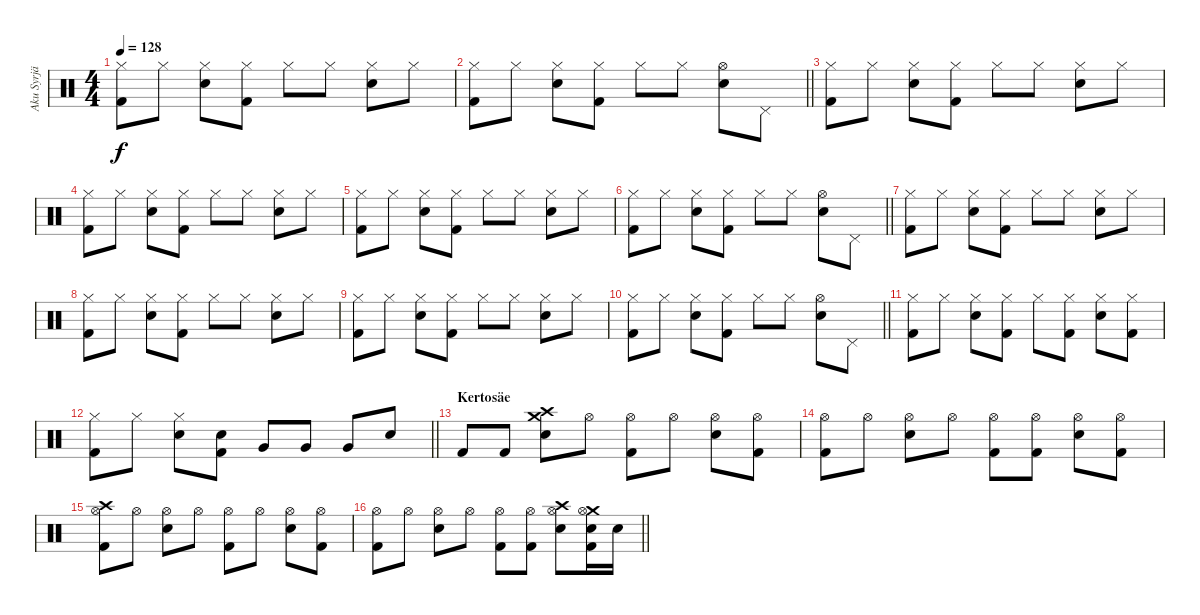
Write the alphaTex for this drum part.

\track ("Aku Syrjä" "Aku Syrjä") {instrument percussion}
\staff {score}
\articulation defaults
\ts (4 4)
\tempo 128
\clef neutral
\ks c
("Hi-Hat (closed)" "Kick (hit) 2").8{dy f} "Hi-Hat (closed)".8 ("Hi-Hat (closed)" "Electric Snare (hit)").8 ("Hi-Hat (closed)" "Kick (hit) 2").8 "Hi-Hat (closed)".8 "Hi-Hat (closed)".8 ("Hi-Hat (closed)" "Electric Snare (hit)").8 "Hi-Hat (closed)".8 |
\barLineRight lightlight
("Hi-Hat (closed)" "Kick (hit) 2").8 "Hi-Hat (closed)".8 ("Hi-Hat (closed)" "Electric Snare (hit)").8 ("Hi-Hat (closed)" "Kick (hit) 2").8 "Hi-Hat (closed)".8 "Hi-Hat (closed)".8 ("Hi-Hat (open)" "Electric Snare (hit)").8 "Pedal Hi-Hat (hit)".8 |
("Hi-Hat (closed)" "Kick (hit) 2").8 "Hi-Hat (closed)".8 ("Hi-Hat (closed)" "Electric Snare (hit)").8 ("Hi-Hat (closed)" "Kick (hit) 2").8 "Hi-Hat (closed)".8 "Hi-Hat (closed)".8 ("Hi-Hat (closed)" "Electric Snare (hit)").8 "Hi-Hat (closed)".8 |
("Hi-Hat (closed)" "Kick (hit) 2").8 "Hi-Hat (closed)".8 ("Hi-Hat (closed)" "Electric Snare (hit)").8 ("Hi-Hat (closed)" "Kick (hit) 2").8 "Hi-Hat (closed)".8 "Hi-Hat (closed)".8 ("Hi-Hat (closed)" "Electric Snare (hit)").8 "Hi-Hat (closed)".8 |
("Hi-Hat (closed)" "Kick (hit) 2").8 "Hi-Hat (closed)".8 ("Hi-Hat (closed)" "Electric Snare (hit)").8 ("Hi-Hat (closed)" "Kick (hit) 2").8 "Hi-Hat (closed)".8 "Hi-Hat (closed)".8 ("Hi-Hat (closed)" "Electric Snare (hit)").8 "Hi-Hat (closed)".8 |
\barLineRight lightlight
("Hi-Hat (closed)" "Kick (hit) 2").8 "Hi-Hat (closed)".8 ("Hi-Hat (closed)" "Electric Snare (hit)").8 ("Hi-Hat (closed)" "Kick (hit) 2").8 "Hi-Hat (closed)".8 "Hi-Hat (closed)".8 ("Hi-Hat (open)" "Electric Snare (hit)").8 "Pedal Hi-Hat (hit)".8 |
("Hi-Hat (closed)" "Kick (hit) 2").8 "Hi-Hat (closed)".8 ("Hi-Hat (closed)" "Electric Snare (hit)").8 ("Hi-Hat (closed)" "Kick (hit) 2").8 "Hi-Hat (closed)".8 "Hi-Hat (closed)".8 ("Hi-Hat (closed)" "Electric Snare (hit)").8 "Hi-Hat (closed)".8 |
("Hi-Hat (closed)" "Kick (hit) 2").8 "Hi-Hat (closed)".8 ("Hi-Hat (closed)" "Electric Snare (hit)").8 ("Hi-Hat (closed)" "Kick (hit) 2").8 "Hi-Hat (closed)".8 "Hi-Hat (closed)".8 ("Hi-Hat (closed)" "Electric Snare (hit)").8 "Hi-Hat (closed)".8 |
("Hi-Hat (closed)" "Kick (hit) 2").8 "Hi-Hat (closed)".8 ("Hi-Hat (closed)" "Electric Snare (hit)").8 ("Hi-Hat (closed)" "Kick (hit) 2").8 "Hi-Hat (closed)".8 "Hi-Hat (closed)".8 ("Hi-Hat (closed)" "Electric Snare (hit)").8 "Hi-Hat (closed)".8 |
\barLineRight lightlight
("Hi-Hat (closed)" "Kick (hit) 2").8 "Hi-Hat (closed)".8 ("Hi-Hat (closed)" "Electric Snare (hit)").8 ("Hi-Hat (closed)" "Kick (hit) 2").8 "Hi-Hat (closed)".8 "Hi-Hat (closed)".8 ("Hi-Hat (open)" "Electric Snare (hit)").8 "Pedal Hi-Hat (hit)".8 |
("Hi-Hat (closed)" "Kick (hit) 2").8 "Hi-Hat (closed)".8 ("Hi-Hat (closed)" "Electric Snare (hit)").8 ("Hi-Hat (closed)" "Kick (hit) 2").8 "Hi-Hat (closed)".8 ("Hi-Hat (closed)" "Kick (hit) 2").8 ("Hi-Hat (closed)" "Electric Snare (hit)").8 ("Hi-Hat (closed)" "Kick (hit) 2").8 |
\barLineRight lightlight
("Hi-Hat (closed)" "Kick (hit) 2").8 "Hi-Hat (closed)".8 ("Hi-Hat (closed)" "Electric Snare (hit)").8 ("Electric Snare (hit)" "Kick (hit) 2").8 "Very Low Tom (hit)".8 "Very Low Tom (hit)".8 "Very Low Tom (hit)".8 "Electric Snare (hit)".8 |
\section ("" "Kertosäe")
"Kick (hit) 2".8 "Kick (hit) 2".8 ("Crash high (hit)" "Crash medium (hit)" "Electric Snare (hit)").8 "Hi-Hat (open)".8 ("Hi-Hat (open)" "Kick (hit) 2").8 "Hi-Hat (open)".8 ("Hi-Hat (open)" "Electric Snare (hit)").8 ("Hi-Hat (open)" "Kick (hit) 2").8 |
("Hi-Hat (open)" "Kick (hit) 2").8 "Hi-Hat (open)".8 ("Hi-Hat (open)" "Electric Snare (hit)").8 "Hi-Hat (open)".8 ("Hi-Hat (open)" "Kick (hit) 2").8 ("Hi-Hat (open)" "Kick (hit) 2").8 ("Hi-Hat (open)" "Electric Snare (hit)").8 ("Hi-Hat (open)" "Kick (hit) 2").8 |
("Crash high (hit)" "Hi-Hat (open)" "Kick (hit) 2").8 "Hi-Hat (open)".8 ("Hi-Hat (open)" "Electric Snare (hit)").8 "Hi-Hat (open)".8 ("Hi-Hat (open)" "Kick (hit) 2").8 "Hi-Hat (open)".8 ("Hi-Hat (open)" "Electric Snare (hit)").8 ("Hi-Hat (open)" "Kick (hit) 2").8 |
\barLineRight lightlight
("Hi-Hat (open)" "Kick (hit) 2").8 "Hi-Hat (open)".8 ("Hi-Hat (open)" "Electric Snare (hit)").8 "Hi-Hat (open)".8 ("Hi-Hat (open)" "Kick (hit) 2").8 ("Hi-Hat (open)" "Kick (hit) 2").8 ("Crash high (hit)" "Hi-Hat (open)" "Electric Snare (hit)").8 ("Crash medium (hit)" "Hi-Hat (open)" "Electric Snare (hit)" "Kick (hit) 2").16 "Electric Snare (hit)".16
